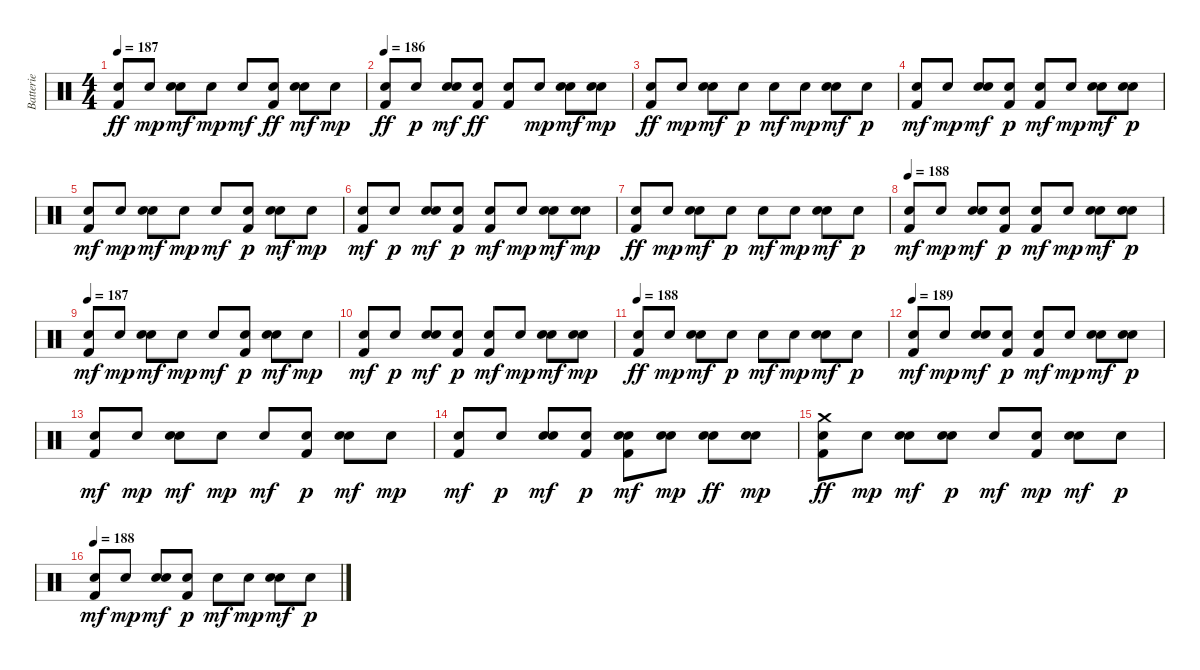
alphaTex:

\track ("Batterie            " "Batterie  ") {instrument percussion}
\staff {score}
\articulation defaults
\ts (4 4)
\tempo 187
\clef neutral
\ks c
("Snare (hit) 2" "Kick (hit) 2").8{dy ff} "Snare (hit) 2".8{dy mp} ("Hand Clap (hit)" "Snare (hit) 2").8{dy mf} "Snare (hit) 2".8{dy mp} "Snare (hit) 2".8{dy mf} ("Snare (hit) 2" "Kick (hit) 2").8{dy ff} ("Hand Clap (hit)" "Snare (hit) 2").8{dy mf} "Snare (hit) 2".8{dy mp} |
\tempo 186
("Snare (hit) 2" "Kick (hit) 2").8{dy ff} "Snare (hit) 2".8{dy p} ("Hand Clap (hit)" "Snare (hit) 2").8{dy mf} ("Snare (hit) 2" "Kick (hit) 2").8{dy ff} ("Snare (hit) 2" "Kick (hit) 2").8 "Snare (hit) 2".8{dy mp} ("Hand Clap (hit)" "Snare (hit) 2").8{dy mf} ("Hand Clap (hit)" "Snare (hit) 2").8{dy mp} |
("Kick (hit) 2" "Snare (hit) 2").8{dy ff} "Snare (hit) 2".8{dy mp} ("Hand Clap (hit)" "Snare (hit) 2").8{dy mf} "Snare (hit) 2".8{dy p} "Snare (hit) 2".8{dy mf} "Snare (hit) 2".8{dy mp} ("Hand Clap (hit)" "Snare (hit) 2").8{dy mf} "Snare (hit) 2".8{dy p} |
("Kick (hit) 2" "Snare (hit) 2").8{dy mf} "Snare (hit) 2".8{dy mp} ("Hand Clap (hit)" "Snare (hit) 2").8{dy mf} ("Kick (hit) 2" "Snare (hit) 2").8{dy p} ("Kick (hit) 2" "Snare (hit) 2").8{dy mf} "Snare (hit) 2".8{dy mp} ("Hand Clap (hit)" "Snare (hit) 2").8{dy mf} ("Hand Clap (hit)" "Snare (hit) 2").8{dy p} |
("Kick (hit) 2" "Snare (hit) 2").8{dy mf} "Snare (hit) 2".8{dy mp} ("Hand Clap (hit)" "Snare (hit) 2").8{dy mf} "Snare (hit) 2".8{dy mp} "Snare (hit) 2".8{dy mf} ("Kick (hit) 2" "Snare (hit) 2").8{dy p} ("Hand Clap (hit)" "Snare (hit) 2").8{dy mf} "Snare (hit) 2".8{dy mp} |
("Kick (hit) 2" "Snare (hit) 2").8{dy mf} "Snare (hit) 2".8{dy p} ("Hand Clap (hit)" "Snare (hit) 2").8{dy mf} ("Kick (hit) 2" "Snare (hit) 2").8{dy p} ("Kick (hit) 2" "Snare (hit) 2").8{dy mf} "Snare (hit) 2".8{dy mp} ("Hand Clap (hit)" "Snare (hit) 2").8{dy mf} ("Hand Clap (hit)" "Snare (hit) 2").8{dy mp} |
("Kick (hit) 2" "Snare (hit) 2").8{dy ff} "Snare (hit) 2".8{dy mp} ("Hand Clap (hit)" "Snare (hit) 2").8{dy mf} "Snare (hit) 2".8{dy p} "Snare (hit) 2".8{dy mf} "Snare (hit) 2".8{dy mp} ("Hand Clap (hit)" "Snare (hit) 2").8{dy mf} "Snare (hit) 2".8{dy p} |
\tempo 188
("Kick (hit) 2" "Snare (hit) 2").8{dy mf} "Snare (hit) 2".8{dy mp} ("Hand Clap (hit)" "Snare (hit) 2").8{dy mf} ("Kick (hit) 2" "Snare (hit) 2").8{dy p} ("Kick (hit) 2" "Snare (hit) 2").8{dy mf} "Snare (hit) 2".8{dy mp} ("Hand Clap (hit)" "Snare (hit) 2").8{dy mf} ("Hand Clap (hit)" "Snare (hit) 2").8{dy p} |
\tempo 187
("Kick (hit) 2" "Snare (hit) 2").8{dy mf} "Snare (hit) 2".8{dy mp} ("Hand Clap (hit)" "Snare (hit) 2").8{dy mf} "Snare (hit) 2".8{dy mp} "Snare (hit) 2".8{dy mf} ("Kick (hit) 2" "Snare (hit) 2").8{dy p} ("Hand Clap (hit)" "Snare (hit) 2").8{dy mf} "Snare (hit) 2".8{dy mp} |
("Kick (hit) 2" "Snare (hit) 2").8{dy mf} "Snare (hit) 2".8{dy p} ("Hand Clap (hit)" "Snare (hit) 2").8{dy mf} ("Kick (hit) 2" "Snare (hit) 2").8{dy p} ("Kick (hit) 2" "Snare (hit) 2").8{dy mf} "Snare (hit) 2".8{dy mp} ("Hand Clap (hit)" "Snare (hit) 2").8{dy mf} ("Hand Clap (hit)" "Snare (hit) 2").8{dy mp} |
\tempo 188
("Kick (hit) 2" "Snare (hit) 2").8{dy ff} "Snare (hit) 2".8{dy mp} ("Hand Clap (hit)" "Snare (hit) 2").8{dy mf} "Snare (hit) 2".8{dy p} "Snare (hit) 2".8{dy mf} "Snare (hit) 2".8{dy mp} ("Hand Clap (hit)" "Snare (hit) 2").8{dy mf} "Snare (hit) 2".8{dy p} |
\tempo 189
("Kick (hit) 2" "Snare (hit) 2").8{dy mf} "Snare (hit) 2".8{dy mp} ("Hand Clap (hit)" "Snare (hit) 2").8{dy mf} ("Kick (hit) 2" "Snare (hit) 2").8{dy p} ("Kick (hit) 2" "Snare (hit) 2").8{dy mf} "Snare (hit) 2".8{dy mp} ("Hand Clap (hit)" "Snare (hit) 2").8{dy mf} ("Hand Clap (hit)" "Snare (hit) 2").8{dy p} |
("Kick (hit) 2" "Snare (hit) 2").8{dy mf} "Snare (hit) 2".8{dy mp} ("Hand Clap (hit)" "Snare (hit) 2").8{dy mf} "Snare (hit) 2".8{dy mp} "Snare (hit) 2".8{dy mf} ("Kick (hit) 2" "Snare (hit) 2").8{dy p} ("Hand Clap (hit)" "Snare (hit) 2").8{dy mf} "Snare (hit) 2".8{dy mp} |
("Kick (hit) 2" "Snare (hit) 2").8{dy mf} "Snare (hit) 2".8{dy p} ("Hand Clap (hit)" "Snare (hit) 2").8{dy mf} ("Kick (hit) 2" "Snare (hit) 2").8{dy p} ("Hand Clap (hit)" "Kick (hit) 2" "Snare (hit) 2").8{dy mf} ("Hand Clap (hit)" "Snare (hit) 2").8{dy mp} ("Hand Clap (hit)" "Snare (hit) 2").8{dy ff} ("Hand Clap (hit)" "Snare (hit) 2").8{dy mp} |
("Crash medium (hit)" "Kick (hit) 2" "Snare (hit) 2").8{dy ff} "Snare (hit) 2".8{dy mp} ("Hand Clap (hit)" "Snare (hit) 2").8{dy mf} ("Hand Clap (hit)" "Snare (hit) 2").8{dy p} "Snare (hit) 2".8{dy mf} ("Kick (hit) 2" "Snare (hit) 2").8{dy mp} ("Hand Clap (hit)" "Snare (hit) 2").8{dy mf} "Snare (hit) 2".8{dy p} |
\tempo 188
("Kick (hit) 2" "Snare (hit) 2").8{dy mf} "Snare (hit) 2".8{dy mp} ("Hand Clap (hit)" "Snare (hit) 2").8{dy mf} ("Kick (hit) 2" "Snare (hit) 2").8{dy p} "Snare (hit) 2".8{dy mf} "Snare (hit) 2".8{dy mp} ("Hand Clap (hit)" "Snare (hit) 2").8{dy mf} "Snare (hit) 2".8{dy p}
